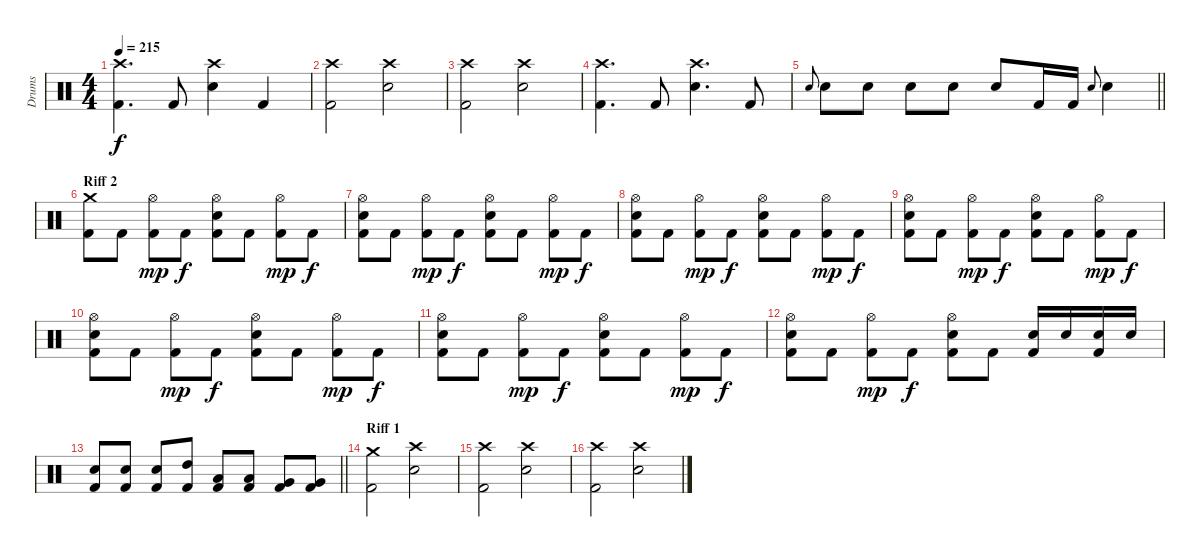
\track ("Drums" "Drums") {instrument percussion}
\staff {score}
\articulation defaults
\ts (4 4)
\tempo 215
\clef neutral
\ks c
("Kick (hit) 2" "Crash high (hit)").4{d dy f} "Kick (hit) 2".8 ("Electric Snare (hit)" "Crash high (hit)").4 "Kick (hit) 2".4 |
("Kick (hit) 2" "Crash high (hit)").2 ("Electric Snare (hit)" "Crash high (hit)").2 |
("Kick (hit) 2" "Crash high (hit)").2 ("Electric Snare (hit)" "Crash high (hit)").2 |
("Kick (hit) 2" "Crash high (hit)").4{d} "Kick (hit) 2".8 ("Electric Snare (hit)" "Crash high (hit)").4{d} "Kick (hit) 2".8 |
\barLineRight lightlight "Electric Snare (hit)".8{gr onbeat} "Electric Snare (hit)".8 "Electric Snare (hit)".8 "Electric Snare (hit)".8 "Electric Snare (hit)".8 "Electric Snare (hit)".8 "Kick (hit) 2".16 "Kick (hit) 2".16 "Electric Snare (hit)".8{gr onbeat} "Electric Snare (hit)".4
|
\section ("" "Riff 2")
("Crash medium (hit)" "Kick (hit) 2").8 "Kick (hit) 2".8 ("Hi-Hat (open)" "Kick (hit) 2").8{dy mp} "Kick (hit) 2".8{dy f} ("Hi-Hat (open)" "Kick (hit) 2" "Electric Snare (hit)").8 "Kick (hit) 2".8 ("Hi-Hat (open)" "Kick (hit) 2").8{dy mp} "Kick (hit) 2".8{dy f} |
("Hi-Hat (open)" "Kick (hit) 2" "Electric Snare (hit)").8 "Kick (hit) 2".8 ("Hi-Hat (open)" "Kick (hit) 2").8{dy mp} "Kick (hit) 2".8{dy f} ("Hi-Hat (open)" "Kick (hit) 2" "Electric Snare (hit)").8 "Kick (hit) 2".8 ("Hi-Hat (open)" "Kick (hit) 2").8{dy mp} "Kick (hit) 2".8{dy f} |
("Hi-Hat (open)" "Kick (hit) 2" "Electric Snare (hit)").8 "Kick (hit) 2".8 ("Hi-Hat (open)" "Kick (hit) 2").8{dy mp} "Kick (hit) 2".8{dy f} ("Hi-Hat (open)" "Kick (hit) 2" "Electric Snare (hit)").8 "Kick (hit) 2".8 ("Hi-Hat (open)" "Kick (hit) 2").8{dy mp} "Kick (hit) 2".8{dy f} |
("Hi-Hat (open)" "Kick (hit) 2" "Electric Snare (hit)").8 "Kick (hit) 2".8 ("Hi-Hat (open)" "Kick (hit) 2").8{dy mp} "Kick (hit) 2".8{dy f} ("Hi-Hat (open)" "Kick (hit) 2" "Electric Snare (hit)").8 "Kick (hit) 2".8 ("Hi-Hat (open)" "Kick (hit) 2").8{dy mp} "Kick (hit) 2".8{dy f} |
("Hi-Hat (open)" "Kick (hit) 2" "Electric Snare (hit)").8 "Kick (hit) 2".8 ("Hi-Hat (open)" "Kick (hit) 2").8{dy mp} "Kick (hit) 2".8{dy f} ("Hi-Hat (open)" "Kick (hit) 2" "Electric Snare (hit)").8 "Kick (hit) 2".8 ("Hi-Hat (open)" "Kick (hit) 2").8{dy mp} "Kick (hit) 2".8{dy f} |
("Hi-Hat (open)" "Kick (hit) 2" "Electric Snare (hit)").8 "Kick (hit) 2".8 ("Hi-Hat (open)" "Kick (hit) 2").8{dy mp} "Kick (hit) 2".8{dy f} ("Hi-Hat (open)" "Kick (hit) 2" "Electric Snare (hit)").8 "Kick (hit) 2".8 ("Hi-Hat (open)" "Kick (hit) 2").8{dy mp} "Kick (hit) 2".8{dy f} |
("Hi-Hat (open)" "Kick (hit) 2" "Electric Snare (hit)").8 "Kick (hit) 2".8 ("Hi-Hat (open)" "Kick (hit) 2").8{dy mp} "Kick (hit) 2".8{dy f} ("Hi-Hat (open)" "Kick (hit) 2" "Electric Snare (hit)").8 "Kick (hit) 2".8 ("Electric Snare (hit)" "Kick (hit) 2").16 "Electric Snare (hit)".16 ("Electric Snare (hit)" "Kick (hit) 2").16 "Electric Snare (hit)".16 |
\barLineRight lightlight
("Electric Snare (hit)" "Kick (hit) 2").8 ("Electric Snare (hit)" "Kick (hit) 2").8 ("Electric Snare (hit)" "Kick (hit) 2").8 ("High Tom (hit)" "Kick (hit) 2").8 ("Low Tom (hit)" "Kick (hit) 2").8 ("Low Tom (hit)" "Kick (hit) 2").8 ("Very Low Tom (hit)" "Kick (hit) 2").8 ("Very Low Tom (hit)" "Kick (hit) 2").8 |
\section ("" "Riff 1")
("Kick (hit) 2" "Crash medium (hit)").2 ("Electric Snare (hit)" "Crash high (hit)").2 |
("Kick (hit) 2" "Crash high (hit)").2 ("Electric Snare (hit)" "Crash high (hit)").2 |
("Kick (hit) 2" "Crash high (hit)").2 ("Electric Snare (hit)" "Crash high (hit)").2
